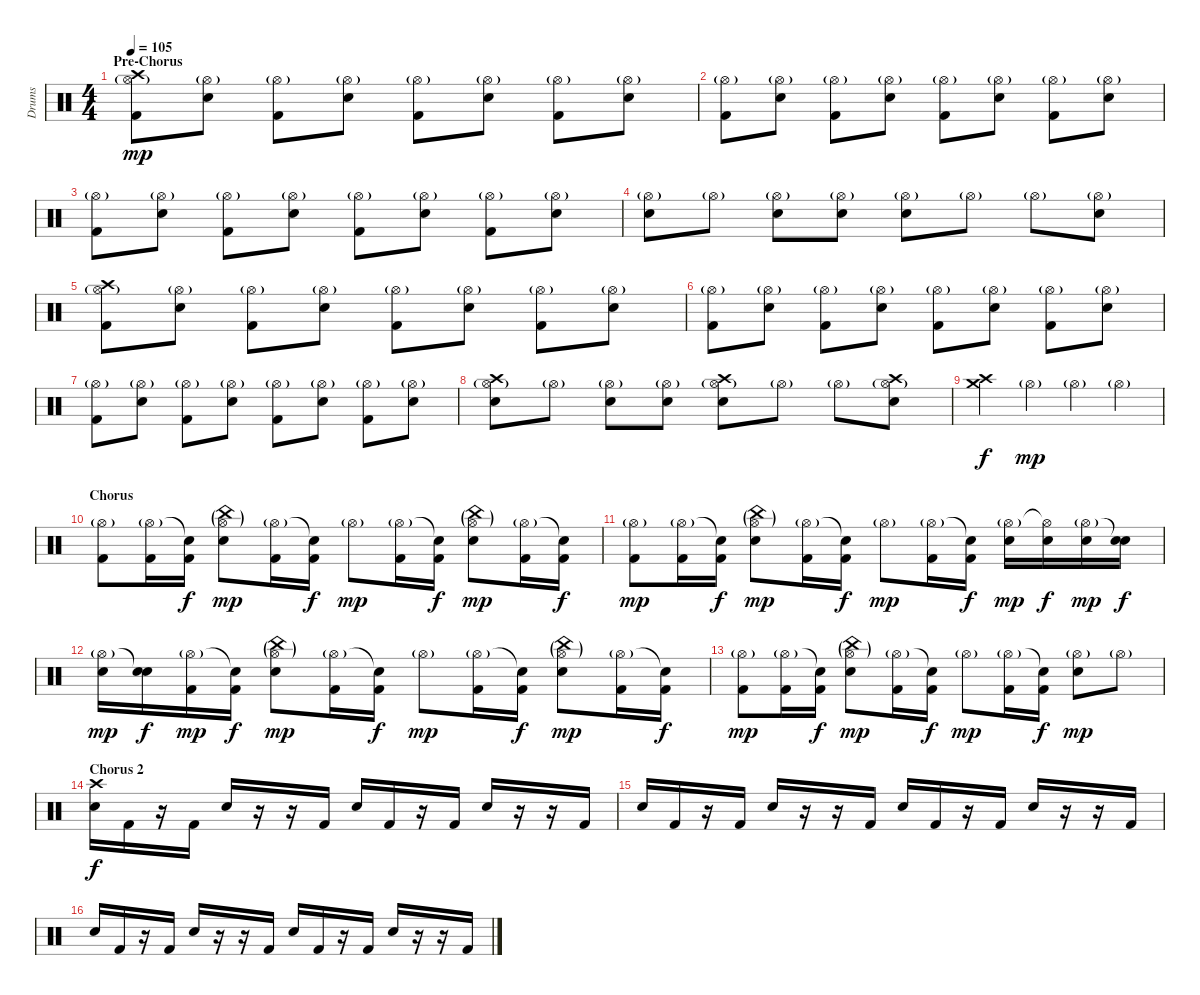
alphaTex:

\track ("Drums" "Drums") {instrument percussion}
\staff {score}
\articulation defaults
\ts (4 4)
\section ("" "Pre-Chorus")
\tempo 105
\clef neutral
\ks c
("Crash high (hit)" "Hi-Hat (open)"{g} "Kick (hit) 2").8{dy mp} ("Hi-Hat (open)"{g} "Electric Snare (hit)").8 ("Hi-Hat (open)"{g} "Kick (hit) 2").8 ("Hi-Hat (open)"{g} "Electric Snare (hit)").8 ("Hi-Hat (open)"{g} "Kick (hit) 2").8 ("Hi-Hat (open)"{g} "Electric Snare (hit)").8 ("Hi-Hat (open)"{g} "Kick (hit) 2").8 ("Hi-Hat (open)"{g} "Electric Snare (hit)").8 |
("Hi-Hat (open)"{g} "Kick (hit) 2").8 ("Hi-Hat (open)"{g} "Electric Snare (hit)").8 ("Hi-Hat (open)"{g} "Kick (hit) 2").8 ("Hi-Hat (open)"{g} "Electric Snare (hit)").8 ("Hi-Hat (open)"{g} "Kick (hit) 2").8 ("Hi-Hat (open)"{g} "Electric Snare (hit)").8 ("Hi-Hat (open)"{g} "Kick (hit) 2").8 ("Hi-Hat (open)"{g} "Electric Snare (hit)").8 |
("Hi-Hat (open)"{g} "Kick (hit) 2").8 ("Hi-Hat (open)"{g} "Electric Snare (hit)").8 ("Hi-Hat (open)"{g} "Kick (hit) 2").8 ("Hi-Hat (open)"{g} "Electric Snare (hit)").8 ("Hi-Hat (open)"{g} "Kick (hit) 2").8 ("Hi-Hat (open)"{g} "Electric Snare (hit)").8 ("Hi-Hat (open)"{g} "Kick (hit) 2").8 ("Hi-Hat (open)"{g} "Electric Snare (hit)").8 |
("Hi-Hat (open)"{g} "Electric Snare (hit)").8 "Hi-Hat (open)"{g}.8 ("Hi-Hat (open)"{g} "Electric Snare (hit)").8 ("Hi-Hat (open)"{g} "Electric Snare (hit)").8 ("Hi-Hat (open)"{g} "Electric Snare (hit)").8 "Hi-Hat (open)"{g}.8 "Hi-Hat (open)"{g}.8 ("Hi-Hat (open)"{g} "Electric Snare (hit)").8 |
("Crash high (hit)" "Hi-Hat (open)"{g} "Kick (hit) 2").8 ("Hi-Hat (open)"{g} "Electric Snare (hit)").8 ("Hi-Hat (open)"{g} "Kick (hit) 2").8 ("Hi-Hat (open)"{g} "Electric Snare (hit)").8 ("Hi-Hat (open)"{g} "Kick (hit) 2").8 ("Hi-Hat (open)"{g} "Electric Snare (hit)").8 ("Hi-Hat (open)"{g} "Kick (hit) 2").8 ("Hi-Hat (open)"{g} "Electric Snare (hit)").8 |
("Hi-Hat (open)"{g} "Kick (hit) 2").8 ("Hi-Hat (open)"{g} "Electric Snare (hit)").8 ("Hi-Hat (open)"{g} "Kick (hit) 2").8 ("Hi-Hat (open)"{g} "Electric Snare (hit)").8 ("Hi-Hat (open)"{g} "Kick (hit) 2").8 ("Hi-Hat (open)"{g} "Electric Snare (hit)").8 ("Hi-Hat (open)"{g} "Kick (hit) 2").8 ("Hi-Hat (open)"{g} "Electric Snare (hit)").8 |
("Hi-Hat (open)"{g} "Kick (hit) 2").8 ("Hi-Hat (open)"{g} "Electric Snare (hit)").8 ("Hi-Hat (open)"{g} "Kick (hit) 2").8 ("Hi-Hat (open)"{g} "Electric Snare (hit)").8 ("Hi-Hat (open)"{g} "Kick (hit) 2").8 ("Hi-Hat (open)"{g} "Electric Snare (hit)").8 ("Hi-Hat (open)"{g} "Kick (hit) 2").8 ("Hi-Hat (open)"{g} "Electric Snare (hit)").8 |
("Crash high (hit)" "Hi-Hat (open)"{g} "Electric Snare (hit)").8 "Hi-Hat (open)"{g}.8 ("Hi-Hat (open)"{g} "Electric Snare (hit)").8 ("Hi-Hat (open)"{g} "Electric Snare (hit)").8 ("Crash high (hit)" "Hi-Hat (open)"{g} "Electric Snare (hit)").8 "Hi-Hat (open)"{g}.8 "Hi-Hat (open)"{g}.8 ("Crash high (hit)" "Hi-Hat (open)"{g} "Electric Snare (hit)").8 |
("Crash high (hit)" "Crash medium (hit)").4{dy f} "Hi-Hat (open)"{g}.4{dy mp} "Hi-Hat (open)"{g}.4 "Hi-Hat (open)"{g}.4 |
\section ("" "Chorus")
("Hi-Hat (open)"{g} "Kick (hit) 2").8 ("Hi-Hat (open)"{g} "Kick (hit) 2").16 ("Snare (hit)"{t} "Kick (hit) 2").16{dy f} ("China (hit)"{g} "Hi-Hat (open)"{g} "Electric Snare (hit)").8{dy mp} ("Hi-Hat (open)"{g} "Kick (hit) 2").16 ("Snare (hit)"{t} "Kick (hit) 2").16{dy f} "Hi-Hat (open)"{g}.8{dy mp} ("Hi-Hat (open)"{g} "Kick (hit) 2").16 ("Snare (hit)"{t} "Kick (hit) 2").16{dy f} ("China (hit)"{g} "Hi-Hat (open)"{g} "Electric Snare (hit)").8{dy mp} ("Hi-Hat (open)"{g} "Kick (hit) 2").16 ("Snare (hit)"{t} "Kick (hit) 2").16{dy f} |
("Hi-Hat (open)"{g} "Kick (hit) 2").8{dy mp} ("Hi-Hat (open)"{g} "Kick (hit) 2").16 ("Snare (hit)"{t} "Kick (hit) 2").16{dy f} ("China (hit)"{g} "Hi-Hat (open)"{g} "Electric Snare (hit)").8{dy mp} ("Hi-Hat (open)"{g} "Kick (hit) 2").16 ("Snare (hit)"{t} "Kick (hit) 2").16{dy f} "Hi-Hat (open)"{g}.8{dy mp} ("Hi-Hat (open)"{g} "Kick (hit) 2").16 ("Snare (hit)"{t} "Kick (hit) 2").16{dy f} ("Hi-Hat (open)"{g} "Electric Snare (hit)").16{dy mp} ("Hi-Hat (open)"{t} "Electric Snare (hit)").16{dy f} ("Hi-Hat (open)"{g} "Electric Snare (hit)").16{dy mp} ("Snare (hit)"{t} "Electric Snare (hit)").16{dy f} |
("Hi-Hat (open)"{g} "Electric Snare (hit)").16{dy mp} ("Snare (hit)"{t} "Electric Snare (hit)").16{dy f} ("Hi-Hat (open)"{g} "Kick (hit) 2").16{dy mp} ("Snare (hit)"{t} "Kick (hit) 2").16{dy f} ("China (hit)"{g} "Hi-Hat (open)"{g} "Electric Snare (hit)").8{dy mp} ("Hi-Hat (open)"{g} "Kick (hit) 2").16 ("Snare (hit)"{t} "Kick (hit) 2").16{dy f} "Hi-Hat (open)"{g}.8{dy mp} ("Hi-Hat (open)"{g} "Kick (hit) 2").16 ("Snare (hit)"{t} "Kick (hit) 2").16{dy f} ("China (hit)"{g} "Hi-Hat (open)"{g} "Electric Snare (hit)").8{dy mp} ("Hi-Hat (open)"{g} "Kick (hit) 2").16 ("Snare (hit)"{t} "Kick (hit) 2").16{dy f} |
("Hi-Hat (open)"{g} "Kick (hit) 2").8{dy mp} ("Hi-Hat (open)"{g} "Kick (hit) 2").16 ("Snare (hit)"{t} "Kick (hit) 2").16{dy f} ("China (hit)"{g} "Hi-Hat (open)"{g} "Electric Snare (hit)").8{dy mp} ("Hi-Hat (open)"{g} "Kick (hit) 2").16 ("Snare (hit)"{t} "Kick (hit) 2").16{dy f} "Hi-Hat (open)"{g}.8{dy mp} ("Hi-Hat (open)"{g} "Kick (hit) 2").16 ("Snare (hit)"{t} "Kick (hit) 2").16{dy f} ("Hi-Hat (open)"{g} "Electric Snare (hit)").8{dy mp} "Hi-Hat (open)"{g}.8 |
\section ("" "Chorus 2")
("Crash high (hit)" "Electric Snare (hit)").16{dy f} "Kick (hit) 2".16 r.16 "Kick (hit) 2".16 "Electric Snare (hit)".16 r.16 r.16 "Kick (hit) 2".16 "Electric Snare (hit)".16 "Kick (hit) 2".16 r.16 "Kick (hit) 2".16 "Electric Snare (hit)".16 r.16 r.16 "Kick (hit) 2".16 |
"Electric Snare (hit)".16 "Kick (hit) 2".16 r.16 "Kick (hit) 2".16 "Electric Snare (hit)".16 r.16 r.16 "Kick (hit) 2".16 "Electric Snare (hit)".16 "Kick (hit) 2".16 r.16 "Kick (hit) 2".16 "Electric Snare (hit)".16 r.16 r.16 "Kick (hit) 2".16 |
"Electric Snare (hit)".16 "Kick (hit) 2".16 r.16 "Kick (hit) 2".16 "Electric Snare (hit)".16 r.16 r.16 "Kick (hit) 2".16 "Electric Snare (hit)".16 "Kick (hit) 2".16 r.16 "Kick (hit) 2".16 "Electric Snare (hit)".16 r.16 r.16 "Kick (hit) 2".16
